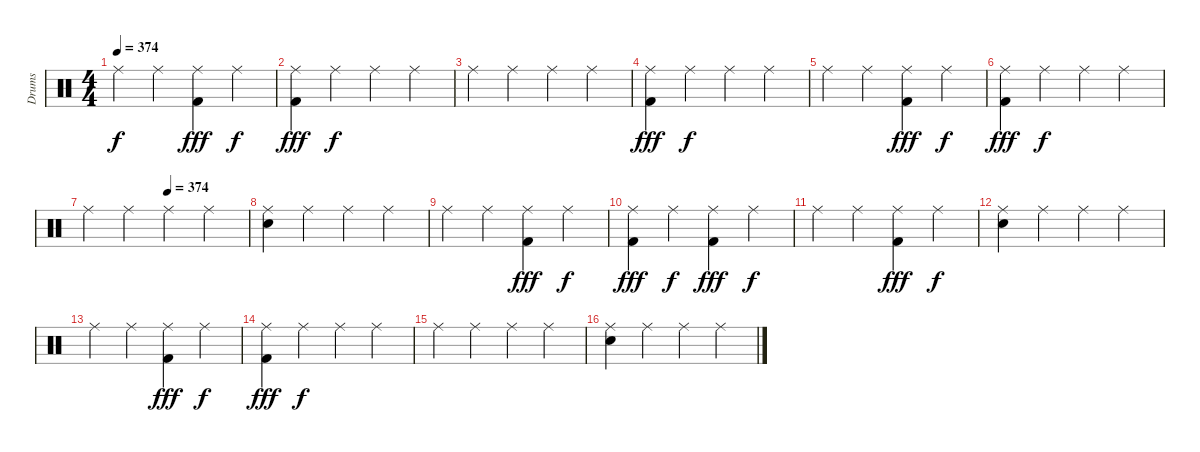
\track ("Drums" "Drums") {instrument percussion}
\staff {score}
\articulation defaults
\ts (4 4)
\tempo 374
\clef neutral
\ks c "Ride (middle)".4{dy f} "Ride (middle)".4
("Ride (middle)" "Kick (hit) 2").4{dy fff} "Ride (middle)".4{dy f} |
("Ride (middle)" "Kick (hit) 2").4{dy fff} "Ride (middle)".4{dy f} "Ride (middle)".4 "Ride (middle)".4 |
"Ride (middle)".4 "Ride (middle)".4 "Ride (middle)".4 "Ride (middle)".4 |
("Ride (middle)" "Kick (hit) 2").4{dy fff} "Ride (middle)".4{dy f} "Ride (middle)".4 "Ride (middle)".4 |
"Ride (middle)".4 "Ride (middle)".4 ("Ride (middle)" "Kick (hit) 2").4{dy fff} "Ride (middle)".4{dy f} |
("Ride (middle)" "Kick (hit) 2").4{dy fff} "Ride (middle)".4{dy f} "Ride (middle)".4 "Ride (middle)".4 |
\tempo (374 0.5)
"Ride (middle)".4 "Ride (middle)".4 "Ride (middle)".4 "Ride (middle)".4 |
("Ride (middle)" "Snare (hit) 2").4 "Ride (middle)".4 "Ride (middle)".4 "Ride (middle)".4 |
"Ride (middle)".4 "Ride (middle)".4 ("Ride (middle)" "Kick (hit) 2").4{dy fff} "Ride (middle)".4{dy f} |
("Ride (middle)" "Kick (hit) 2").4{dy fff} "Ride (middle)".4{dy f} ("Ride (middle)" "Kick (hit) 2").4{dy fff} "Ride (middle)".4{dy f} |
"Ride (middle)".4 "Ride (middle)".4 ("Ride (middle)" "Kick (hit) 2").4{dy fff} "Ride (middle)".4{dy f} |
("Ride (middle)" "Snare (hit) 2").4 "Ride (middle)".4 "Ride (middle)".4 "Ride (middle)".4 |
"Ride (middle)".4 "Ride (middle)".4 ("Ride (middle)" "Kick (hit) 2").4{dy fff} "Ride (middle)".4{dy f} |
("Ride (middle)" "Kick (hit) 2").4{dy fff} "Ride (middle)".4{dy f} "Ride (middle)".4 "Ride (middle)".4 |
"Ride (middle)".4 "Ride (middle)".4 "Ride (middle)".4 "Ride (middle)".4 |
("Ride (middle)" "Snare (hit) 2").4 "Ride (middle)".4 "Ride (middle)".4 "Ride (middle)".4
